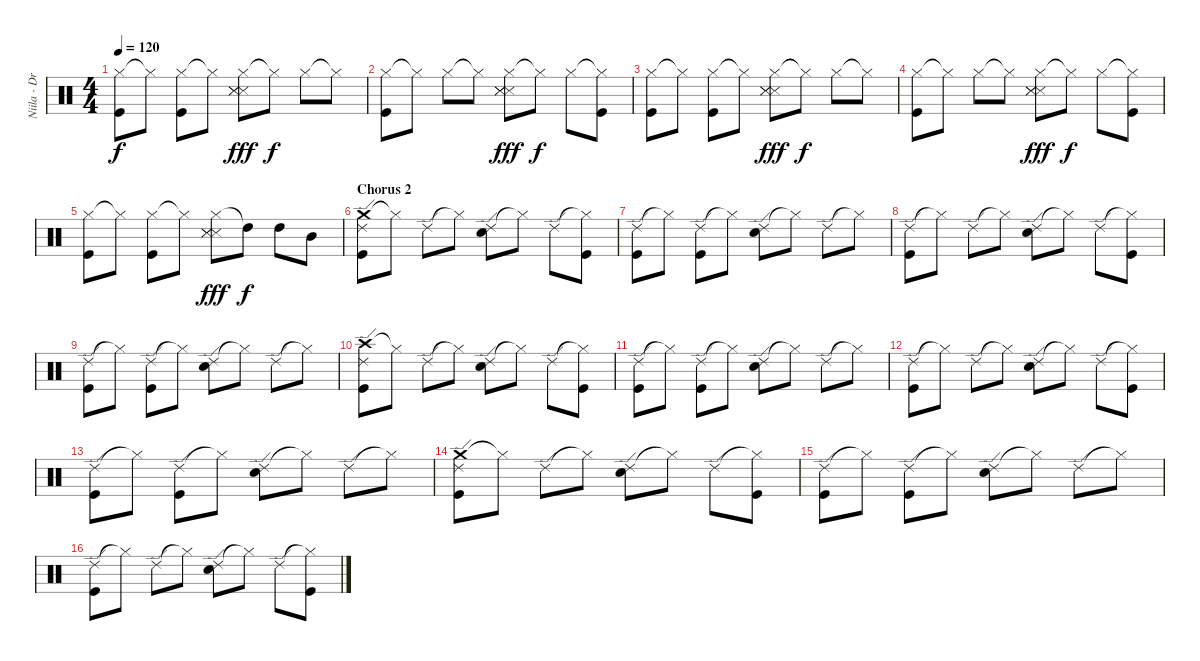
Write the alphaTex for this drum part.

\track ("Niila - Drums" "Niila - Dr") {instrument percussion}
\staff {score}
\articulation defaults
\ts (4 4)
\tempo 120
\clef neutral
\ks c
("Hi-Hat (closed)" "Kick (hit)").8{dy f} "Hi-Hat (closed)"{t}.8 ("Hi-Hat (closed)" "Kick (hit)").8 "Hi-Hat (closed)"{t}.8 ("Hi-Hat (closed)" "Snare (side stick) 3" "Snare (side stick) 3" "Snare (side stick) 3").8{dy fff} "Hi-Hat (closed)"{t}.8{dy f} "Hi-Hat (closed)".8 "Hi-Hat (closed)"{t}.8 |
("Hi-Hat (closed)" "Kick (hit)").8 "Hi-Hat (closed)"{t}.8 "Hi-Hat (closed)".8 "Hi-Hat (closed)"{t}.8 ("Hi-Hat (closed)" "Snare (side stick) 3" "Snare (side stick) 3" "Snare (side stick) 3").8{dy fff} "Hi-Hat (closed)"{t}.8{dy f} "Hi-Hat (closed)".8 ("Hi-Hat (closed)"{t} "Kick (hit)").8 |
("Hi-Hat (closed)" "Kick (hit)").8 "Hi-Hat (closed)"{t}.8 ("Hi-Hat (closed)" "Kick (hit)").8 "Hi-Hat (closed)"{t}.8 ("Hi-Hat (closed)" "Snare (side stick) 3" "Snare (side stick) 3" "Snare (side stick) 3").8{dy fff} "Hi-Hat (closed)"{t}.8{dy f} "Hi-Hat (closed)".8 "Hi-Hat (closed)"{t}.8 |
("Hi-Hat (closed)" "Kick (hit)").8 "Hi-Hat (closed)"{t}.8 "Hi-Hat (closed)".8 "Hi-Hat (closed)"{t}.8 ("Hi-Hat (closed)" "Snare (side stick) 3" "Snare (side stick) 3" "Snare (side stick) 3").8{dy fff} "Hi-Hat (closed)"{t}.8{dy f} "Hi-Hat (closed)".8 ("Hi-Hat (closed)"{t} "Kick (hit)").8 |
("Hi-Hat (closed)" "Kick (hit)").8 "Hi-Hat (closed)"{t}.8 ("Hi-Hat (closed)" "Kick (hit)").8 "Hi-Hat (closed)"{t}.8 ("Hi-Hat (closed)" "Snare (side stick) 3" "Snare (side stick) 3" "Snare (side stick) 3").8{dy fff} "High Tom (hit)"{t}.8{dy f} "High Tom (hit)".8 "Mid Tom (hit)".8 |
\section ("" "Chorus 2")
("Crash medium (hit)" "Ride (edge) 2" "Kick (hit)").8 "Hi-Hat (closed)"{t}.8 "Ride (edge) 2".8 "Hi-Hat (closed)"{t}.8 ("Ride (edge) 2" "Snare (hit) 2").8 "Hi-Hat (closed)"{t}.8 "Ride (edge) 2".8 ("Hi-Hat (closed)"{t} "Kick (hit)").8 |
("Ride (edge) 2" "Kick (hit)").8 "Hi-Hat (closed)"{t}.8 ("Ride (edge) 2" "Kick (hit)").8 "Hi-Hat (closed)"{t}.8 ("Ride (edge) 2" "Snare (hit) 2").8 "Hi-Hat (closed)"{t}.8 "Ride (edge) 2".8 "Hi-Hat (closed)"{t}.8 |
("Ride (edge) 2" "Kick (hit)").8 "Hi-Hat (closed)"{t}.8 "Ride (edge) 2".8 "Hi-Hat (closed)"{t}.8 ("Ride (edge) 2" "Snare (hit) 2").8 "Hi-Hat (closed)"{t}.8 "Ride (edge) 2".8 ("Hi-Hat (closed)"{t} "Kick (hit)").8 |
("Ride (edge) 2" "Kick (hit)").8 "Hi-Hat (closed)"{t}.8 ("Ride (edge) 2" "Kick (hit)").8 "Hi-Hat (closed)"{t}.8 ("Ride (edge) 2" "Snare (hit) 2").8 "Hi-Hat (closed)"{t}.8 "Ride (edge) 2".8 "Hi-Hat (closed)"{t}.8 |
("Crash high (hit)" "Ride (edge) 2" "Kick (hit)").8 "Hi-Hat (closed)"{t}.8 "Ride (edge) 2".8 "Hi-Hat (closed)"{t}.8 ("Ride (edge) 2" "Snare (hit) 2").8 "Hi-Hat (closed)"{t}.8 "Ride (edge) 2".8 ("Hi-Hat (closed)"{t} "Kick (hit)").8 |
("Ride (edge) 2" "Kick (hit)").8 "Hi-Hat (closed)"{t}.8 ("Ride (edge) 2" "Kick (hit)").8 "Hi-Hat (closed)"{t}.8 ("Ride (edge) 2" "Snare (hit) 2").8 "Hi-Hat (closed)"{t}.8 "Ride (edge) 2".8 "Hi-Hat (closed)"{t}.8 |
("Ride (edge) 2" "Kick (hit)").8 "Hi-Hat (closed)"{t}.8 "Ride (edge) 2".8 "Hi-Hat (closed)"{t}.8 ("Ride (edge) 2" "Snare (hit) 2").8 "Hi-Hat (closed)"{t}.8 "Ride (edge) 2".8 ("Hi-Hat (closed)"{t} "Kick (hit)").8 |
("Ride (edge) 2" "Kick (hit)").8 "Hi-Hat (closed)"{t}.8 ("Ride (edge) 2" "Kick (hit)").8 "Hi-Hat (closed)"{t}.8 ("Ride (edge) 2" "Snare (hit) 2").8 "Hi-Hat (closed)"{t}.8 "Ride (edge) 2".8 "Hi-Hat (closed)"{t}.8 |
("Crash medium (hit)" "Ride (edge) 2" "Kick (hit)").8 "Hi-Hat (closed)"{t}.8 "Ride (edge) 2".8 "Hi-Hat (closed)"{t}.8 ("Ride (edge) 2" "Snare (hit) 2").8 "Hi-Hat (closed)"{t}.8 "Ride (edge) 2".8 ("Hi-Hat (closed)"{t} "Kick (hit)").8 |
("Ride (edge) 2" "Kick (hit)").8 "Hi-Hat (closed)"{t}.8 ("Ride (edge) 2" "Kick (hit)").8 "Hi-Hat (closed)"{t}.8 ("Ride (edge) 2" "Snare (hit) 2").8 "Hi-Hat (closed)"{t}.8 "Ride (edge) 2".8 "Hi-Hat (closed)"{t}.8 |
("Ride (edge) 2" "Kick (hit)").8 "Hi-Hat (closed)"{t}.8 "Ride (edge) 2".8 "Hi-Hat (closed)"{t}.8 ("Ride (edge) 2" "Snare (hit) 2").8 "Hi-Hat (closed)"{t}.8 "Ride (edge) 2".8 ("Hi-Hat (closed)"{t} "Kick (hit)").8
